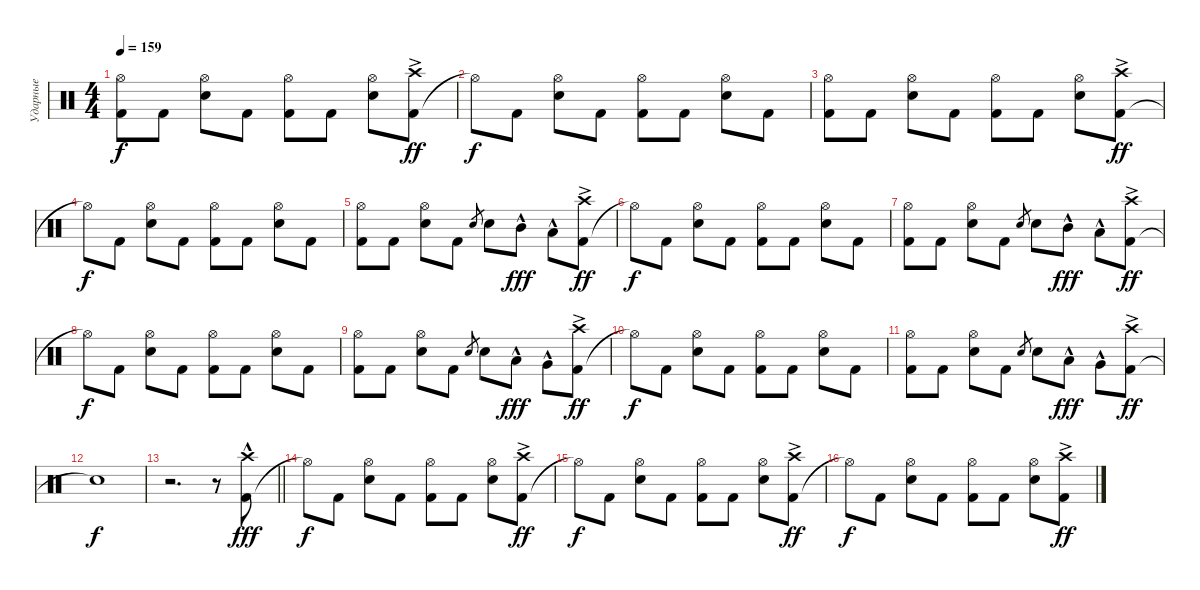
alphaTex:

\track ("Ударные" "Ударные") {instrument percussion}
\staff {score}
\articulation defaults
\ts (4 4)
\tempo 159
\clef neutral
\ks c
("Kick (hit) 2" "Hi-Hat (open)").8{dy f} "Kick (hit) 2".8 ("Snare (hit) 2" "Hi-Hat (open)").8 "Kick (hit) 2".8 ("Kick (hit) 2" "Hi-Hat (open)").8 "Kick (hit) 2".8 ("Snare (hit) 2" "Hi-Hat (open)").8 ("Kick (hit) 2" "Crash high (hit)"{ac}).8{dy ff} |
"Hi-Hat (open)"{t}.8{dy f} "Kick (hit) 2".8 ("Snare (hit) 2" "Hi-Hat (open)").8 "Kick (hit) 2".8 ("Kick (hit) 2" "Hi-Hat (open)").8 "Kick (hit) 2".8 ("Snare (hit) 2" "Hi-Hat (open)").8 "Kick (hit) 2".8 |
("Kick (hit) 2" "Hi-Hat (open)").8 "Kick (hit) 2".8 ("Snare (hit) 2" "Hi-Hat (open)").8 "Kick (hit) 2".8 ("Kick (hit) 2" "Hi-Hat (open)").8 "Kick (hit) 2".8 ("Snare (hit) 2" "Hi-Hat (open)").8 ("Kick (hit) 2" "Crash high (hit)"{ac}).8{dy ff} |
"Hi-Hat (open)"{t}.8{dy f} "Kick (hit) 2".8 ("Snare (hit) 2" "Hi-Hat (open)").8 "Kick (hit) 2".8 ("Kick (hit) 2" "Hi-Hat (open)").8 "Kick (hit) 2".8 ("Snare (hit) 2" "Hi-Hat (open)").8 "Kick (hit) 2".8 |
("Kick (hit) 2" "Hi-Hat (open)").8 "Kick (hit) 2".8 ("Snare (hit) 2" "Hi-Hat (open)").8 "Kick (hit) 2".8 "Snare (hit) 2".8{gr} "Snare (hit) 2".8 "Mid Tom (hit)"{hac}.8{dy fff} "Low Tom (hit)"{hac}.8 ("Kick (hit) 2" "Crash high (hit)"{ac}).8{dy ff} |
"Hi-Hat (open)"{t}.8{dy f} "Kick (hit) 2".8 ("Snare (hit) 2" "Hi-Hat (open)").8 "Kick (hit) 2".8 ("Kick (hit) 2" "Hi-Hat (open)").8 "Kick (hit) 2".8 ("Snare (hit) 2" "Hi-Hat (open)").8 "Kick (hit) 2".8 |
("Kick (hit) 2" "Hi-Hat (open)").8 "Kick (hit) 2".8 ("Snare (hit) 2" "Hi-Hat (open)").8 "Kick (hit) 2".8 "Snare (hit) 2".8{gr} "Snare (hit) 2".8 "Mid Tom (hit)"{hac}.8{dy fff} "Low Tom (hit)"{hac}.8 ("Kick (hit) 2" "Crash high (hit)"{ac}).8{dy ff} |
"Hi-Hat (open)"{t}.8{dy f} "Kick (hit) 2".8 ("Snare (hit) 2" "Hi-Hat (open)").8 "Kick (hit) 2".8 ("Kick (hit) 2" "Hi-Hat (open)").8 "Kick (hit) 2".8 ("Snare (hit) 2" "Hi-Hat (open)").8 "Kick (hit) 2".8 |
("Kick (hit) 2" "Hi-Hat (open)").8 "Kick (hit) 2".8 ("Snare (hit) 2" "Hi-Hat (open)").8 "Kick (hit) 2".8 "Snare (hit) 2".8{gr} "Snare (hit) 2".8 "Low Tom (hit)"{hac}.8{dy fff} "Very Low Tom (hit)"{hac}.8 ("Kick (hit) 2" "Crash high (hit)"{ac}).8{dy ff} |
"Hi-Hat (open)"{t}.8{dy f} "Kick (hit) 2".8 ("Snare (hit) 2" "Hi-Hat (open)").8 "Kick (hit) 2".8 ("Kick (hit) 2" "Hi-Hat (open)").8 "Kick (hit) 2".8 ("Snare (hit) 2" "Hi-Hat (open)").8 "Kick (hit) 2".8 |
("Kick (hit) 2" "Hi-Hat (open)").8 "Kick (hit) 2".8 ("Snare (hit) 2" "Hi-Hat (open)").8 "Kick (hit) 2".8 "Snare (hit) 2".8{gr} "Snare (hit) 2".8 "Low Tom (hit)"{hac}.8{dy fff} "Very Low Tom (hit)"{hac}.8 ("Kick (hit) 2" "Crash high (hit)"{ac}).8{dy ff} |
"Snare (hit)"{t}.1{dy f} |
\barLineRight lightlight
r.2{d} r.8 ("Kick (hit) 2" "Crash high (hit)"{hac}).8{dy fff} |
"Hi-Hat (open)"{t}.8{dy f} "Kick (hit) 2".8 ("Snare (hit) 2" "Hi-Hat (open)").8 "Kick (hit) 2".8 ("Kick (hit) 2" "Hi-Hat (open)").8 "Kick (hit) 2".8 ("Snare (hit) 2" "Hi-Hat (open)").8 ("Kick (hit) 2" "Crash high (hit)"{ac}).8{dy ff} |
"Hi-Hat (open)"{t}.8{dy f} "Kick (hit) 2".8 ("Snare (hit) 2" "Hi-Hat (open)").8 "Kick (hit) 2".8 ("Kick (hit) 2" "Hi-Hat (open)").8 "Kick (hit) 2".8 ("Snare (hit) 2" "Hi-Hat (open)").8 ("Kick (hit) 2" "Crash high (hit)"{ac}).8{dy ff} |
"Hi-Hat (open)"{t}.8{dy f} "Kick (hit) 2".8 ("Snare (hit) 2" "Hi-Hat (open)").8 "Kick (hit) 2".8 ("Kick (hit) 2" "Hi-Hat (open)").8 "Kick (hit) 2".8 ("Snare (hit) 2" "Hi-Hat (open)").8 ("Kick (hit) 2" "Crash high (hit)"{ac}).8{dy ff}
